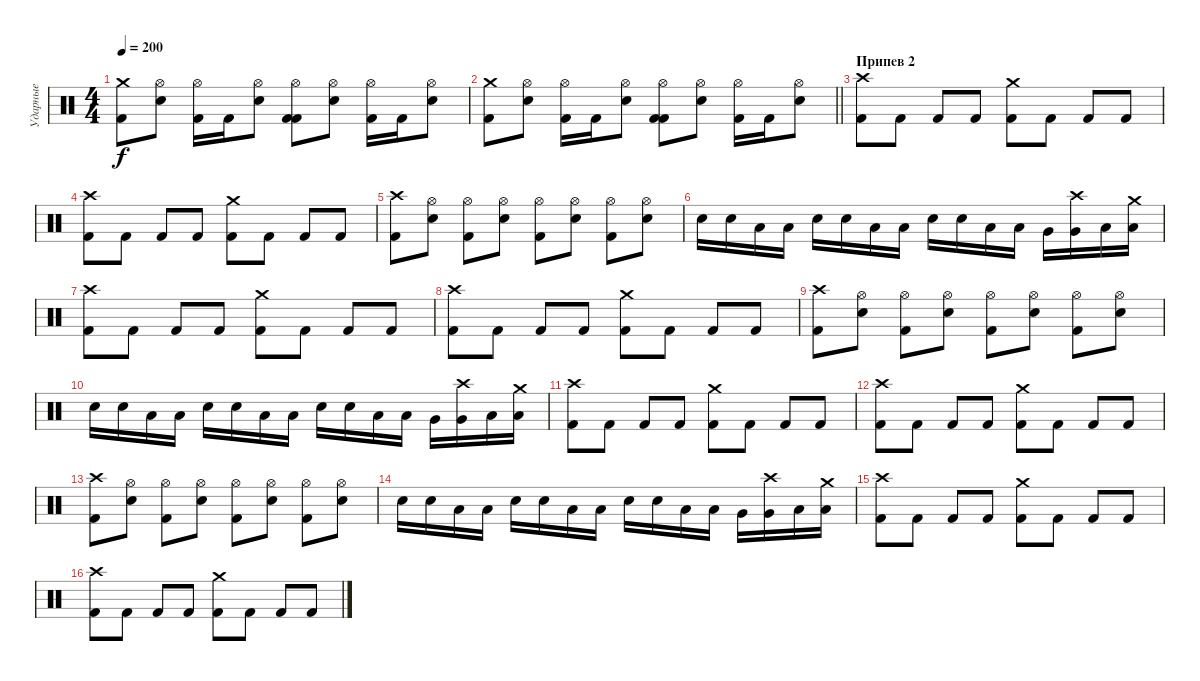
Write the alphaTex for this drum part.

\track ("Ударные" "Ударные") {instrument percussion}
\staff {score}
\articulation defaults
\ts (4 4)
\tempo 200
\clef neutral
\ks c
("Kick (hit) 2" "Crash medium (hit)").8{dy f} ("Hi-Hat (open)" "Electric Snare (hit)").8 ("Kick (hit) 2" "Hi-Hat (open)").16 "Kick (hit) 2".16 ("Hi-Hat (open)" "Electric Snare (hit)").8 ("Kick (hit) 2" "Kick (hit) 2" "Hi-Hat (open)").8 ("Hi-Hat (open)" "Electric Snare (hit)").8 ("Kick (hit) 2" "Hi-Hat (open)").16 "Kick (hit) 2".16 ("Hi-Hat (open)" "Electric Snare (hit)").8 |
\barLineRight lightlight
("Kick (hit) 2" "Crash medium (hit)").8 ("Hi-Hat (open)" "Electric Snare (hit)").8 ("Kick (hit) 2" "Hi-Hat (open)").16 "Kick (hit) 2".16 ("Hi-Hat (open)" "Electric Snare (hit)").8 ("Kick (hit) 2" "Kick (hit) 2" "Hi-Hat (open)").8 ("Hi-Hat (open)" "Electric Snare (hit)").8 ("Kick (hit) 2" "Hi-Hat (open)").16 "Kick (hit) 2".16 ("Hi-Hat (open)" "Electric Snare (hit)").8 |
\section ("" "Припев 2")
("Crash high (hit)" "Kick (hit) 2").8 "Kick (hit) 2".8 "Kick (hit) 2".8 "Kick (hit) 2".8 ("Crash medium (hit)" "Kick (hit) 2").8 "Kick (hit) 2".8 "Kick (hit) 2".8 "Kick (hit) 2".8 |
("Crash high (hit)" "Kick (hit) 2").8 "Kick (hit) 2".8 "Kick (hit) 2".8 "Kick (hit) 2".8 ("Crash medium (hit)" "Kick (hit) 2").8 "Kick (hit) 2".8 "Kick (hit) 2".8 "Kick (hit) 2".8 |
("Crash high (hit)" "Kick (hit) 2").8 ("Hi-Hat (open)" "Snare (hit) 2").8 ("Hi-Hat (open)" "Kick (hit) 2").8 ("Hi-Hat (open)" "Snare (hit) 2").8 ("Hi-Hat (open)" "Kick (hit) 2").8 ("Hi-Hat (open)" "Snare (hit) 2").8 ("Hi-Hat (open)" "Kick (hit) 2").8 ("Hi-Hat (open)" "Snare (hit) 2").8 |
"Snare (hit) 2".16 "Snare (hit) 2".16 "Low Tom (hit)".16 "Low Tom (hit)".16 "Snare (hit) 2".16 "Snare (hit) 2".16 "Low Tom (hit)".16 "Low Tom (hit)".16 "Snare (hit) 2".16 "Snare (hit) 2".16 "Low Tom (hit)".16 "Low Tom (hit)".16 "Very Low Tom (hit)".16 ("Crash high (hit)" "Very Low Tom (hit)").16 "Low Floor Tom (hit)".16 ("Crash medium (hit)" "Low Floor Tom (hit)").16 |
("Crash high (hit)" "Kick (hit) 2").8 "Kick (hit) 2".8 "Kick (hit) 2".8 "Kick (hit) 2".8 ("Crash medium (hit)" "Kick (hit) 2").8 "Kick (hit) 2".8 "Kick (hit) 2".8 "Kick (hit) 2".8 |
("Crash high (hit)" "Kick (hit) 2").8 "Kick (hit) 2".8 "Kick (hit) 2".8 "Kick (hit) 2".8 ("Crash medium (hit)" "Kick (hit) 2").8 "Kick (hit) 2".8 "Kick (hit) 2".8 "Kick (hit) 2".8 |
("Crash high (hit)" "Kick (hit) 2").8 ("Hi-Hat (open)" "Snare (hit) 2").8 ("Hi-Hat (open)" "Kick (hit) 2").8 ("Hi-Hat (open)" "Snare (hit) 2").8 ("Hi-Hat (open)" "Kick (hit) 2").8 ("Hi-Hat (open)" "Snare (hit) 2").8 ("Hi-Hat (open)" "Kick (hit) 2").8 ("Hi-Hat (open)" "Snare (hit) 2").8 |
"Snare (hit) 2".16 "Snare (hit) 2".16 "Low Tom (hit)".16 "Low Tom (hit)".16 "Snare (hit) 2".16 "Snare (hit) 2".16 "Low Tom (hit)".16 "Low Tom (hit)".16 "Snare (hit) 2".16 "Snare (hit) 2".16 "Low Tom (hit)".16 "Low Tom (hit)".16 "Very Low Tom (hit)".16 ("Crash high (hit)" "Very Low Tom (hit)").16 "Low Floor Tom (hit)".16 ("Crash medium (hit)" "Low Floor Tom (hit)").16 |
("Crash high (hit)" "Kick (hit) 2").8 "Kick (hit) 2".8 "Kick (hit) 2".8 "Kick (hit) 2".8 ("Crash medium (hit)" "Kick (hit) 2").8 "Kick (hit) 2".8 "Kick (hit) 2".8 "Kick (hit) 2".8 |
("Crash high (hit)" "Kick (hit) 2").8 "Kick (hit) 2".8 "Kick (hit) 2".8 "Kick (hit) 2".8 ("Crash medium (hit)" "Kick (hit) 2").8 "Kick (hit) 2".8 "Kick (hit) 2".8 "Kick (hit) 2".8 |
("Crash high (hit)" "Kick (hit) 2").8 ("Hi-Hat (open)" "Snare (hit) 2").8 ("Hi-Hat (open)" "Kick (hit) 2").8 ("Hi-Hat (open)" "Snare (hit) 2").8 ("Hi-Hat (open)" "Kick (hit) 2").8 ("Hi-Hat (open)" "Snare (hit) 2").8 ("Hi-Hat (open)" "Kick (hit) 2").8 ("Hi-Hat (open)" "Snare (hit) 2").8 |
"Snare (hit) 2".16 "Snare (hit) 2".16 "Low Tom (hit)".16 "Low Tom (hit)".16 "Snare (hit) 2".16 "Snare (hit) 2".16 "Low Tom (hit)".16 "Low Tom (hit)".16 "Snare (hit) 2".16 "Snare (hit) 2".16 "Low Tom (hit)".16 "Low Tom (hit)".16 "Very Low Tom (hit)".16 ("Crash high (hit)" "Very Low Tom (hit)").16 "Low Floor Tom (hit)".16 ("Crash medium (hit)" "Low Floor Tom (hit)").16 |
("Crash high (hit)" "Kick (hit) 2").8 "Kick (hit) 2".8 "Kick (hit) 2".8 "Kick (hit) 2".8 ("Crash medium (hit)" "Kick (hit) 2").8 "Kick (hit) 2".8 "Kick (hit) 2".8 "Kick (hit) 2".8 |
("Crash high (hit)" "Kick (hit) 2").8 "Kick (hit) 2".8 "Kick (hit) 2".8 "Kick (hit) 2".8 ("Crash medium (hit)" "Kick (hit) 2").8 "Kick (hit) 2".8 "Kick (hit) 2".8 "Kick (hit) 2".8
